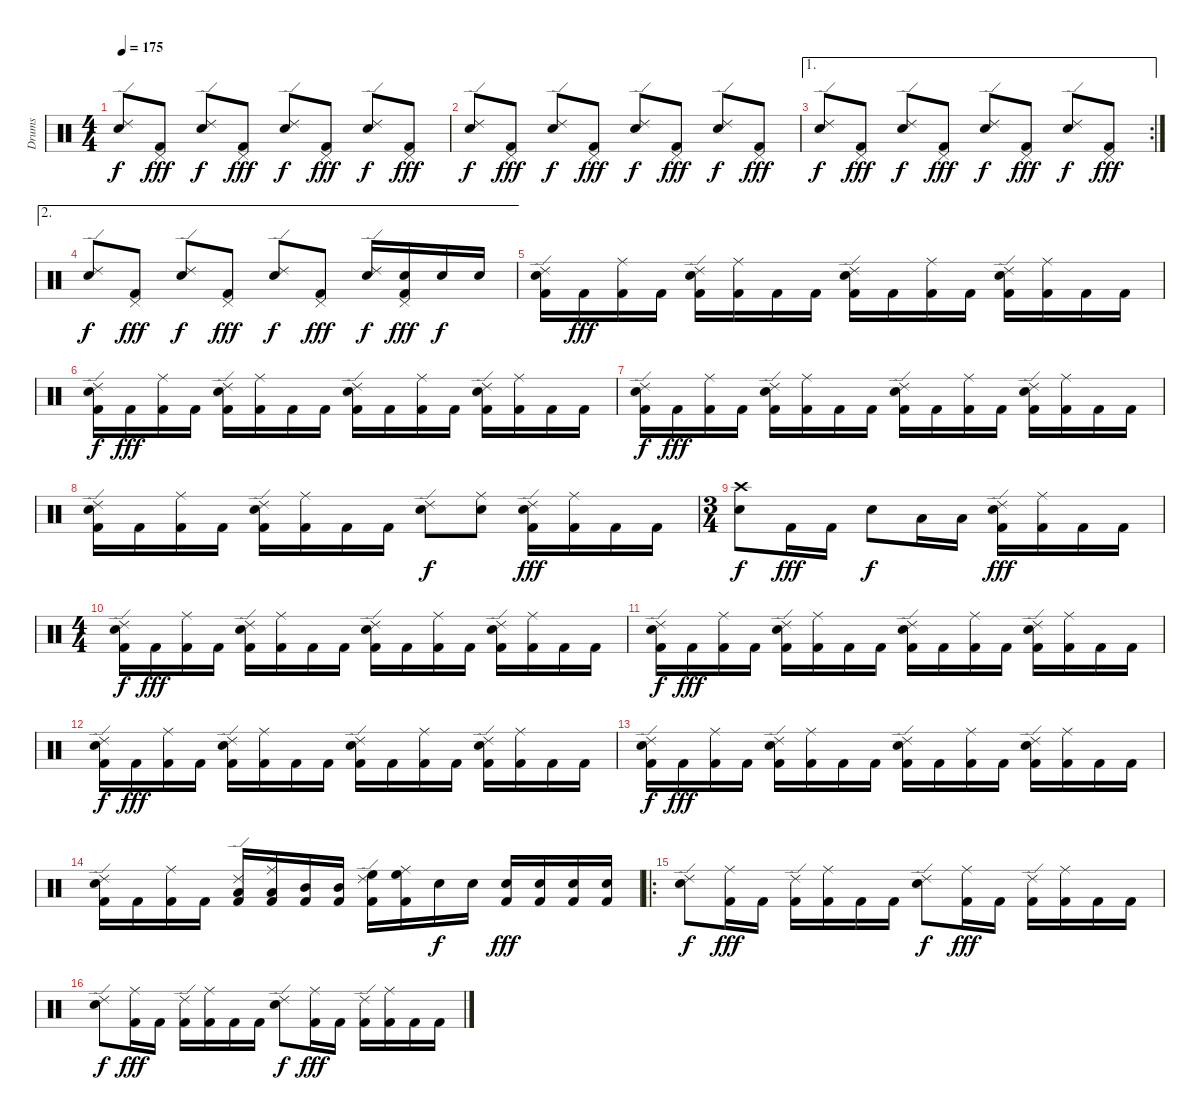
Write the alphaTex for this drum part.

\track ("Drums" "Drums") {instrument percussion}
\staff {score}
\articulation defaults
\ts (4 4)
\tempo 175
\clef neutral
\ks c
("Ride (edge) 2" "Electric Snare (hit)").8{dy f} ("Pedal Hi-Hat (hit)" "Kick (hit) 2").8{dy fff} ("Ride (edge) 2" "Electric Snare (hit)").8{dy f} ("Pedal Hi-Hat (hit)" "Kick (hit) 2").8{dy fff} ("Ride (edge) 2" "Electric Snare (hit)").8{dy f} ("Pedal Hi-Hat (hit)" "Kick (hit) 2").8{dy fff} ("Ride (edge) 2" "Electric Snare (hit)").8{dy f} ("Pedal Hi-Hat (hit)" "Kick (hit) 2").8{dy fff} |
("Ride (edge) 2" "Electric Snare (hit)").8{dy f} ("Pedal Hi-Hat (hit)" "Kick (hit) 2").8{dy fff} ("Ride (edge) 2" "Electric Snare (hit)").8{dy f} ("Pedal Hi-Hat (hit)" "Kick (hit) 2").8{dy fff} ("Ride (edge) 2" "Electric Snare (hit)").8{dy f} ("Pedal Hi-Hat (hit)" "Kick (hit) 2").8{dy fff} ("Ride (edge) 2" "Electric Snare (hit)").8{dy f} ("Pedal Hi-Hat (hit)" "Kick (hit) 2").8{dy fff} |
\ae 1
\rc 2
("Ride (edge) 2" "Electric Snare (hit)").8{dy f} ("Pedal Hi-Hat (hit)" "Kick (hit) 2").8{dy fff} ("Ride (edge) 2" "Electric Snare (hit)").8{dy f} ("Pedal Hi-Hat (hit)" "Kick (hit) 2").8{dy fff} ("Ride (edge) 2" "Electric Snare (hit)").8{dy f} ("Pedal Hi-Hat (hit)" "Kick (hit) 2").8{dy fff} ("Ride (edge) 2" "Electric Snare (hit)").8{dy f} ("Pedal Hi-Hat (hit)" "Kick (hit) 2").8{dy fff} |
\ae 2
("Ride (edge) 2" "Electric Snare (hit)").8{dy f} ("Pedal Hi-Hat (hit)" "Kick (hit) 2").8{dy fff} ("Ride (edge) 2" "Electric Snare (hit)").8{dy f} ("Pedal Hi-Hat (hit)" "Kick (hit) 2").8{dy fff} ("Ride (edge) 2" "Electric Snare (hit)").8{dy f} ("Pedal Hi-Hat (hit)" "Kick (hit) 2").8{dy fff} ("Ride (edge) 2" "Electric Snare (hit)").16{dy f} ("Pedal Hi-Hat (hit)" "Electric Snare (hit)" "Kick (hit) 2").16{dy fff} "Electric Snare (hit)".16{dy f} "Electric Snare (hit)".16 |
("Ride (edge) 2" "Electric Snare (hit)" "Kick (hit) 2").16 "Kick (hit) 2".16{dy fff} ("Ride (middle)" "Kick (hit) 2").16 "Kick (hit) 2".16 ("Ride (edge) 2" "Electric Snare (hit)" "Kick (hit) 2").16 ("Ride (middle)" "Kick (hit) 2").16 "Kick (hit) 2".16 "Kick (hit) 2".16 ("Ride (edge) 2" "Electric Snare (hit)" "Kick (hit) 2").16 "Kick (hit) 2".16 ("Ride (middle)" "Kick (hit) 2").16 "Kick (hit) 2".16 ("Ride (edge) 2" "Electric Snare (hit)" "Kick (hit) 2").16 ("Ride (middle)" "Kick (hit) 2").16 "Kick (hit) 2".16 "Kick (hit) 2".16 |
("Ride (edge) 2" "Electric Snare (hit)" "Kick (hit) 2").16{dy f} "Kick (hit) 2".16{dy fff} ("Ride (middle)" "Kick (hit) 2").16 "Kick (hit) 2".16 ("Ride (edge) 2" "Electric Snare (hit)" "Kick (hit) 2").16 ("Ride (middle)" "Kick (hit) 2").16 "Kick (hit) 2".16 "Kick (hit) 2".16 ("Ride (edge) 2" "Electric Snare (hit)" "Kick (hit) 2").16 "Kick (hit) 2".16 ("Ride (middle)" "Kick (hit) 2").16 "Kick (hit) 2".16 ("Ride (edge) 2" "Electric Snare (hit)" "Kick (hit) 2").16 ("Ride (middle)" "Kick (hit) 2").16 "Kick (hit) 2".16 "Kick (hit) 2".16 |
("Ride (edge) 2" "Electric Snare (hit)" "Kick (hit) 2").16{dy f} "Kick (hit) 2".16{dy fff} ("Ride (middle)" "Kick (hit) 2").16 "Kick (hit) 2".16 ("Ride (edge) 2" "Electric Snare (hit)" "Kick (hit) 2").16 ("Ride (middle)" "Kick (hit) 2").16 "Kick (hit) 2".16 "Kick (hit) 2".16 ("Ride (edge) 2" "Electric Snare (hit)" "Kick (hit) 2").16 "Kick (hit) 2".16 ("Ride (middle)" "Kick (hit) 2").16 "Kick (hit) 2".16 ("Ride (edge) 2" "Electric Snare (hit)" "Kick (hit) 2").16 ("Ride (middle)" "Kick (hit) 2").16 "Kick (hit) 2".16 "Kick (hit) 2".16 |
("Ride (edge) 2" "Electric Snare (hit)" "Kick (hit) 2").16 "Kick (hit) 2".16 ("Ride (middle)" "Kick (hit) 2").16 "Kick (hit) 2".16 ("Ride (edge) 2" "Electric Snare (hit)" "Kick (hit) 2").16 ("Ride (middle)" "Kick (hit) 2").16 "Kick (hit) 2".16 "Kick (hit) 2".16 ("Ride (edge) 2" "Electric Snare (hit)").8{dy f} ("Ride (middle)" "Electric Snare (hit)").8 ("Ride (edge) 2" "Electric Snare (hit)" "Kick (hit) 2").16{dy fff} ("Ride (middle)" "Kick (hit) 2").16 "Kick (hit) 2".16 "Kick (hit) 2".16 |
\ts (3 4)
("Crash high (hit)" "Electric Snare (hit)").8{dy f} "Kick (hit) 2".16{dy fff} "Kick (hit) 2".16 "Electric Snare (hit)".8{dy f} "Low Tom (hit)".16 "Low Tom (hit)".16 ("Ride (edge) 2" "Electric Snare (hit)" "Kick (hit) 2").16{dy fff} ("Ride (middle)" "Kick (hit) 2").16 "Kick (hit) 2".16 "Kick (hit) 2".16 |
\ts (4 4)
("Ride (edge) 2" "Electric Snare (hit)" "Kick (hit) 2").16{dy f} "Kick (hit) 2".16{dy fff} ("Ride (middle)" "Kick (hit) 2").16 "Kick (hit) 2".16 ("Ride (edge) 2" "Electric Snare (hit)" "Kick (hit) 2").16 ("Ride (middle)" "Kick (hit) 2").16 "Kick (hit) 2".16 "Kick (hit) 2".16 ("Ride (edge) 2" "Electric Snare (hit)" "Kick (hit) 2").16 "Kick (hit) 2".16 ("Ride (middle)" "Kick (hit) 2").16 "Kick (hit) 2".16 ("Ride (edge) 2" "Electric Snare (hit)" "Kick (hit) 2").16 ("Ride (middle)" "Kick (hit) 2").16 "Kick (hit) 2".16 "Kick (hit) 2".16 |
("Ride (edge) 2" "Electric Snare (hit)" "Kick (hit) 2").16{dy f} "Kick (hit) 2".16{dy fff} ("Ride (middle)" "Kick (hit) 2").16 "Kick (hit) 2".16 ("Ride (edge) 2" "Electric Snare (hit)" "Kick (hit) 2").16 ("Ride (middle)" "Kick (hit) 2").16 "Kick (hit) 2".16 "Kick (hit) 2".16 ("Ride (edge) 2" "Electric Snare (hit)" "Kick (hit) 2").16 "Kick (hit) 2".16 ("Ride (middle)" "Kick (hit) 2").16 "Kick (hit) 2".16 ("Ride (edge) 2" "Electric Snare (hit)" "Kick (hit) 2").16 ("Ride (middle)" "Kick (hit) 2").16 "Kick (hit) 2".16 "Kick (hit) 2".16 |
("Ride (edge) 2" "Electric Snare (hit)" "Kick (hit) 2").16{dy f} "Kick (hit) 2".16{dy fff} ("Ride (middle)" "Kick (hit) 2").16 "Kick (hit) 2".16 ("Ride (edge) 2" "Electric Snare (hit)" "Kick (hit) 2").16 ("Ride (middle)" "Kick (hit) 2").16 "Kick (hit) 2".16 "Kick (hit) 2".16 ("Ride (edge) 2" "Electric Snare (hit)" "Kick (hit) 2").16 "Kick (hit) 2".16 ("Ride (middle)" "Kick (hit) 2").16 "Kick (hit) 2".16 ("Ride (edge) 2" "Electric Snare (hit)" "Kick (hit) 2").16 ("Ride (middle)" "Kick (hit) 2").16 "Kick (hit) 2".16 "Kick (hit) 2".16 |
("Ride (edge) 2" "Electric Snare (hit)" "Kick (hit) 2").16{dy f} "Kick (hit) 2".16{dy fff} ("Ride (middle)" "Kick (hit) 2").16 "Kick (hit) 2".16 ("Ride (edge) 2" "Electric Snare (hit)" "Kick (hit) 2").16 ("Ride (middle)" "Kick (hit) 2").16 "Kick (hit) 2".16 "Kick (hit) 2".16 ("Ride (edge) 2" "Electric Snare (hit)" "Kick (hit) 2").16 "Kick (hit) 2".16 ("Ride (middle)" "Kick (hit) 2").16 "Kick (hit) 2".16 ("Ride (edge) 2" "Electric Snare (hit)" "Kick (hit) 2").16 ("Ride (middle)" "Kick (hit) 2").16 "Kick (hit) 2".16 "Kick (hit) 2".16 |
("Ride (edge) 2" "Electric Snare (hit)" "Kick (hit) 2").16 "Kick (hit) 2".16 ("Ride (middle)" "Kick (hit) 2").16 "Kick (hit) 2".16 ("Ride (edge) 2" "Low Tom (hit)" "Kick (hit) 2").16 ("Ride (middle)" "Low Tom (hit)" "Kick (hit) 2").16 ("Mid Tom (hit)" "Kick (hit) 2").16 ("Mid Tom (hit)" "Kick (hit) 2").16 ("Ride (edge) 2" "High Floor Tom (hit)" "Kick (hit) 2").16 ("Ride (middle)" "High Floor Tom (hit)" "Kick (hit) 2").16 "Electric Snare (hit)".16{dy f} "Electric Snare (hit)".16 ("Electric Snare (hit)" "Kick (hit) 2").16{dy fff} ("Electric Snare (hit)" "Kick (hit) 2").16 ("Electric Snare (hit)" "Kick (hit) 2").16 ("Electric Snare (hit)" "Kick (hit) 2").16 |
\ro
("Ride (edge) 2" "Electric Snare (hit)").8{dy f} ("Ride (middle)" "Kick (hit) 2").16{dy fff} "Kick (hit) 2".16 ("Ride (edge) 2" "Kick (hit) 2").16 ("Ride (middle)" "Kick (hit) 2").16 "Kick (hit) 2".16 "Kick (hit) 2".16 ("Ride (edge) 2" "Electric Snare (hit)").8{dy f} ("Ride (middle)" "Kick (hit) 2").16{dy fff} "Kick (hit) 2".16 ("Ride (edge) 2" "Kick (hit) 2").16 ("Ride (middle)" "Kick (hit) 2").16 "Kick (hit) 2".16 "Kick (hit) 2".16 |
("Ride (edge) 2" "Electric Snare (hit)").8{dy f} ("Ride (middle)" "Kick (hit) 2").16{dy fff} "Kick (hit) 2".16 ("Ride (edge) 2" "Kick (hit) 2").16 ("Ride (middle)" "Kick (hit) 2").16 "Kick (hit) 2".16 "Kick (hit) 2".16 ("Ride (edge) 2" "Electric Snare (hit)").8{dy f} ("Ride (middle)" "Kick (hit) 2").16{dy fff} "Kick (hit) 2".16 ("Ride (edge) 2" "Kick (hit) 2").16 ("Ride (middle)" "Kick (hit) 2").16 "Kick (hit) 2".16 "Kick (hit) 2".16
